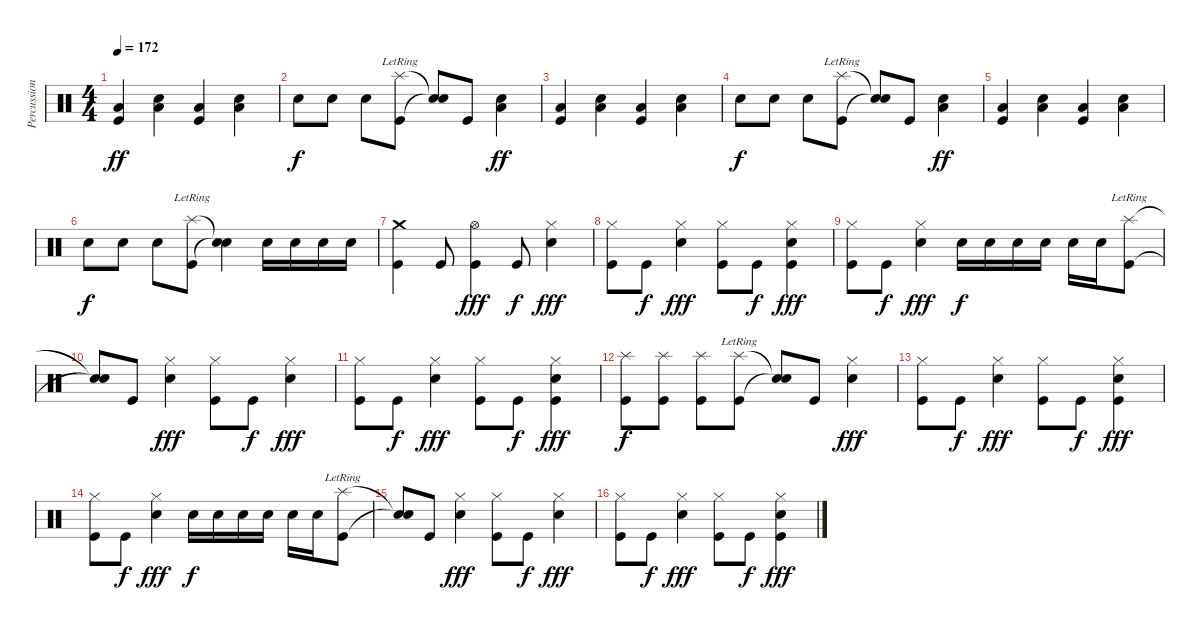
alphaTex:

\track ("Percussions" "Percussion") {instrument percussion}
\staff {score}
\articulation defaults
\ts (4 4)
\tempo 172
\clef neutral
\ks c
("Low Floor Tom (hit)" "Kick (hit)").4{dy ff} ("Snare (hit) 2" "Low Floor Tom (hit)").4 ("Low Floor Tom (hit)" "Kick (hit)").4 ("Snare (hit) 2" "Low Floor Tom (hit)").4 |
"Snare (hit) 2".8{dy f} "Snare (hit) 2".8 "Snare (hit) 2".8 ("Splash (hit)"{lr} "Kick (hit)").8 ("Snare (hit)"{t} "Snare (hit)"{t}).8 "Kick (hit)".8 ("Snare (hit) 2" "Low Floor Tom (hit)").4{dy ff} |
("Low Floor Tom (hit)" "Kick (hit)").4 ("Snare (hit) 2" "Low Floor Tom (hit)").4 ("Low Floor Tom (hit)" "Kick (hit)").4 ("Snare (hit) 2" "Low Floor Tom (hit)").4 |
"Snare (hit) 2".8{dy f} "Snare (hit) 2".8 "Snare (hit) 2".8 ("Splash (hit)"{lr} "Kick (hit)").8 ("Snare (hit)"{t} "Snare (hit)"{t}).8 "Kick (hit)".8 ("Snare (hit) 2" "Low Floor Tom (hit)").4{dy ff} |
("Low Floor Tom (hit)" "Kick (hit)").4 ("Snare (hit) 2" "Low Floor Tom (hit)").4 ("Low Floor Tom (hit)" "Kick (hit)").4 ("Snare (hit) 2" "Low Floor Tom (hit)").4 |
"Snare (hit) 2".8{dy f} "Snare (hit) 2".8 "Snare (hit) 2".8 ("Splash (hit)"{lr} "Kick (hit)").8 ("Snare (hit)"{t} "Snare (hit)"{t}).4 "Snare (hit) 2".16 "Snare (hit) 2".16 "Snare (hit) 2".16 "Snare (hit) 2".16 |
("Crash medium (hit)" "Kick (hit)").4 "Kick (hit)".8 ("Hi-Hat (open)" "Kick (hit)").4{dy fff} "Kick (hit)".8{dy f} ("Hi-Hat (closed)" "Snare (hit) 2").4{dy fff} |
("Hi-Hat (closed)" "Kick (hit)").8 "Kick (hit)".8{dy f} ("Hi-Hat (closed)" "Snare (hit) 2").4{dy fff} ("Hi-Hat (closed)" "Kick (hit)").8 "Kick (hit)".8{dy f} ("Hi-Hat (closed)" "Snare (hit) 2" "Kick (hit)").4{dy fff} |
("Hi-Hat (closed)" "Kick (hit)").8 "Kick (hit)".8{dy f} ("Hi-Hat (closed)" "Snare (hit) 2").4{dy fff} "Snare (hit) 2".16{dy f} "Snare (hit) 2".16 "Snare (hit) 2".16 "Snare (hit) 2".16 "Snare (hit) 2".16 "Snare (hit) 2".16 ("Splash (hit)"{lr} "Kick (hit)").8 |
("Snare (hit)"{t} "Snare (hit)"{t}).8 "Kick (hit)".8 ("Hi-Hat (closed)" "Snare (hit) 2").4{dy fff} ("Hi-Hat (closed)" "Kick (hit)").8 "Kick (hit)".8{dy f} ("Hi-Hat (closed)" "Snare (hit) 2").4{dy fff} |
("Hi-Hat (closed)" "Kick (hit)").8 "Kick (hit)".8{dy f} ("Hi-Hat (closed)" "Snare (hit) 2").4{dy fff} ("Hi-Hat (closed)" "Kick (hit)").8 "Kick (hit)".8{dy f} ("Hi-Hat (closed)" "Snare (hit) 2" "Kick (hit)").4{dy fff} |
("Splash (hit)" "Kick (hit)").8{dy f} ("Splash (hit)" "Kick (hit)").8 ("Splash (hit)" "Kick (hit)").8 ("Splash (hit)"{lr} "Kick (hit)").8 ("Snare (hit)"{t} "Snare (hit)"{t}).8 "Kick (hit)".8 ("Hi-Hat (closed)" "Snare (hit) 2").4{dy fff} |
("Hi-Hat (closed)" "Kick (hit)").8 "Kick (hit)".8{dy f} ("Hi-Hat (closed)" "Snare (hit) 2").4{dy fff} ("Hi-Hat (closed)" "Kick (hit)").8 "Kick (hit)".8{dy f} ("Hi-Hat (closed)" "Snare (hit) 2" "Kick (hit)").4{dy fff} |
("Hi-Hat (closed)" "Kick (hit)").8 "Kick (hit)".8{dy f} ("Hi-Hat (closed)" "Snare (hit) 2").4{dy fff} "Snare (hit) 2".16{dy f} "Snare (hit) 2".16 "Snare (hit) 2".16 "Snare (hit) 2".16 "Snare (hit) 2".16 "Snare (hit) 2".16 ("Splash (hit)"{lr} "Kick (hit)").8 |
("Snare (hit)"{t} "Snare (hit)"{t}).8 "Kick (hit)".8 ("Hi-Hat (closed)" "Snare (hit) 2").4{dy fff} ("Hi-Hat (closed)" "Kick (hit)").8 "Kick (hit)".8{dy f} ("Hi-Hat (closed)" "Snare (hit) 2").4{dy fff} |
("Hi-Hat (closed)" "Kick (hit)").8 "Kick (hit)".8{dy f} ("Hi-Hat (closed)" "Snare (hit) 2").4{dy fff} ("Hi-Hat (closed)" "Kick (hit)").8 "Kick (hit)".8{dy f} ("Hi-Hat (closed)" "Snare (hit) 2" "Kick (hit)").4{dy fff}
